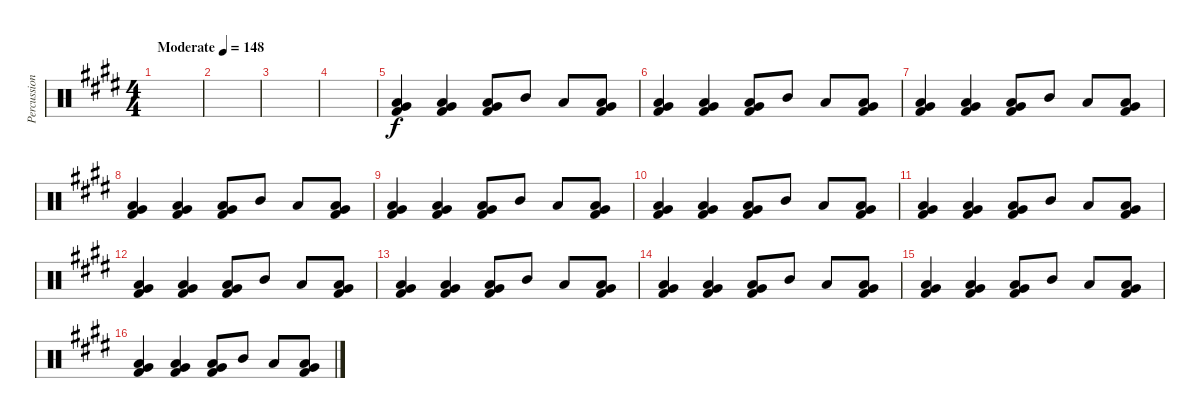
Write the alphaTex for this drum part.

\track ("Percussion" "Percussion") {instrument percussion}
\staff {score}
\articulation defaults
\ts (4 4)
\tempo (148 "Moderate")
\clef neutral
\ks e
|
|
|
|
("Low Floor Tom (hit)" "Very Low Tom (hit)" "Kick (hit) 2").4 ("Low Floor Tom (hit)" "Very Low Tom (hit)" "Kick (hit) 2").4 ("Low Floor Tom (hit)" "Very Low Tom (hit)" "Kick (hit) 2").8 "Mid Tom (hit)".8 "Low Tom (hit)".8 ("Low Floor Tom (hit)" "Very Low Tom (hit)" "Kick (hit) 2").8 |
("Low Floor Tom (hit)" "Very Low Tom (hit)" "Kick (hit) 2").4 ("Low Floor Tom (hit)" "Very Low Tom (hit)" "Kick (hit) 2").4 ("Low Floor Tom (hit)" "Very Low Tom (hit)" "Kick (hit) 2").8 "Mid Tom (hit)".8 "Low Tom (hit)".8 ("Low Floor Tom (hit)" "Very Low Tom (hit)" "Kick (hit) 2").8 |
("Low Floor Tom (hit)" "Very Low Tom (hit)" "Kick (hit) 2").4 ("Low Floor Tom (hit)" "Very Low Tom (hit)" "Kick (hit) 2").4 ("Low Floor Tom (hit)" "Very Low Tom (hit)" "Kick (hit) 2").8 "Mid Tom (hit)".8 "Low Tom (hit)".8 ("Low Floor Tom (hit)" "Very Low Tom (hit)" "Kick (hit) 2").8 |
("Low Floor Tom (hit)" "Very Low Tom (hit)" "Kick (hit) 2").4 ("Low Floor Tom (hit)" "Very Low Tom (hit)" "Kick (hit) 2").4 ("Low Floor Tom (hit)" "Very Low Tom (hit)" "Kick (hit) 2").8 "Mid Tom (hit)".8 "Low Tom (hit)".8 ("Low Floor Tom (hit)" "Very Low Tom (hit)" "Kick (hit) 2").8 |
("Low Floor Tom (hit)" "Very Low Tom (hit)" "Kick (hit) 2").4 ("Low Floor Tom (hit)" "Very Low Tom (hit)" "Kick (hit) 2").4 ("Low Floor Tom (hit)" "Very Low Tom (hit)" "Kick (hit) 2").8 "Mid Tom (hit)".8 "Low Tom (hit)".8 ("Low Floor Tom (hit)" "Very Low Tom (hit)" "Kick (hit) 2").8 |
("Low Floor Tom (hit)" "Very Low Tom (hit)" "Kick (hit) 2").4 ("Low Floor Tom (hit)" "Very Low Tom (hit)" "Kick (hit) 2").4 ("Low Floor Tom (hit)" "Very Low Tom (hit)" "Kick (hit) 2").8 "Mid Tom (hit)".8 "Low Tom (hit)".8 ("Low Floor Tom (hit)" "Very Low Tom (hit)" "Kick (hit) 2").8 |
("Low Floor Tom (hit)" "Very Low Tom (hit)" "Kick (hit) 2").4 ("Low Floor Tom (hit)" "Very Low Tom (hit)" "Kick (hit) 2").4 ("Low Floor Tom (hit)" "Very Low Tom (hit)" "Kick (hit) 2").8 "Mid Tom (hit)".8 "Low Tom (hit)".8 ("Low Floor Tom (hit)" "Very Low Tom (hit)" "Kick (hit) 2").8 |
("Low Floor Tom (hit)" "Very Low Tom (hit)" "Kick (hit) 2").4 ("Low Floor Tom (hit)" "Very Low Tom (hit)" "Kick (hit) 2").4 ("Low Floor Tom (hit)" "Very Low Tom (hit)" "Kick (hit) 2").8 "Mid Tom (hit)".8 "Low Tom (hit)".8 ("Low Floor Tom (hit)" "Very Low Tom (hit)" "Kick (hit) 2").8 |
("Low Floor Tom (hit)" "Very Low Tom (hit)" "Kick (hit) 2").4 ("Low Floor Tom (hit)" "Very Low Tom (hit)" "Kick (hit) 2").4 ("Low Floor Tom (hit)" "Very Low Tom (hit)" "Kick (hit) 2").8 "Mid Tom (hit)".8 "Low Tom (hit)".8 ("Low Floor Tom (hit)" "Very Low Tom (hit)" "Kick (hit) 2").8 |
("Low Floor Tom (hit)" "Very Low Tom (hit)" "Kick (hit) 2").4 ("Low Floor Tom (hit)" "Very Low Tom (hit)" "Kick (hit) 2").4 ("Low Floor Tom (hit)" "Very Low Tom (hit)" "Kick (hit) 2").8 "Mid Tom (hit)".8 "Low Tom (hit)".8 ("Low Floor Tom (hit)" "Very Low Tom (hit)" "Kick (hit) 2").8 |
("Low Floor Tom (hit)" "Very Low Tom (hit)" "Kick (hit) 2").4 ("Low Floor Tom (hit)" "Very Low Tom (hit)" "Kick (hit) 2").4 ("Low Floor Tom (hit)" "Very Low Tom (hit)" "Kick (hit) 2").8 "Mid Tom (hit)".8 "Low Tom (hit)".8 ("Low Floor Tom (hit)" "Very Low Tom (hit)" "Kick (hit) 2").8 |
("Low Floor Tom (hit)" "Very Low Tom (hit)" "Kick (hit) 2").4 ("Low Floor Tom (hit)" "Very Low Tom (hit)" "Kick (hit) 2").4 ("Low Floor Tom (hit)" "Very Low Tom (hit)" "Kick (hit) 2").8 "Mid Tom (hit)".8 "Low Tom (hit)".8 ("Low Floor Tom (hit)" "Very Low Tom (hit)" "Kick (hit) 2").8
